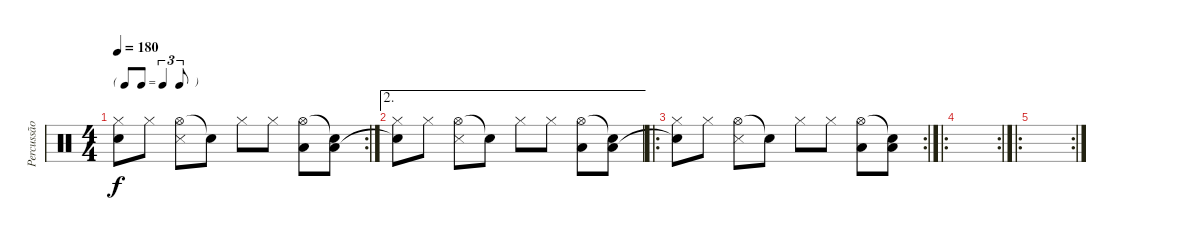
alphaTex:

\track ("Percussão" "Percussão") {instrument percussion}
\staff {score}
\articulation defaults
\rc 2
\ts (4 4)
\tf triplet8th
\tempo 180
\clef neutral
\ks c
("Hi-Hat (closed)" "Snare (hit)"{t}).8{dy f} "Hi-Hat (closed)".8 ("Hi-Hat (open)" "Snare (side stick) 3").8 "Snare (hit)"{t}.8 "Hi-Hat (closed)".8 "Hi-Hat (closed)".8 ("Hi-Hat (open)" "Low Tom (hit)").8 ("Snare (hit)"{t} "Low Tom (hit)").8 |
\ae 2
("Hi-Hat (closed)" "Snare (hit)"{t}).8 "Hi-Hat (closed)".8 ("Hi-Hat (open)" "Snare (side stick) 3").8 "Snare (hit)"{t}.8 "Hi-Hat (closed)".8 "Hi-Hat (closed)".8 ("Hi-Hat (open)" "Low Tom (hit)").8 ("Snare (hit)"{t} "Low Tom (hit)").8 |
\ro
\rc 2
("Hi-Hat (closed)" "Snare (hit)"{t}).8 "Hi-Hat (closed)".8 ("Hi-Hat (open)" "Snare (side stick) 3").8 "Snare (hit)"{t}.8 "Hi-Hat (closed)".8 "Hi-Hat (closed)".8 ("Hi-Hat (open)" "Low Tom (hit)").8 ("Snare (hit)"{t} "Low Tom (hit)").8 |
\ro
\rc 2
|
\ro
\rc 2
